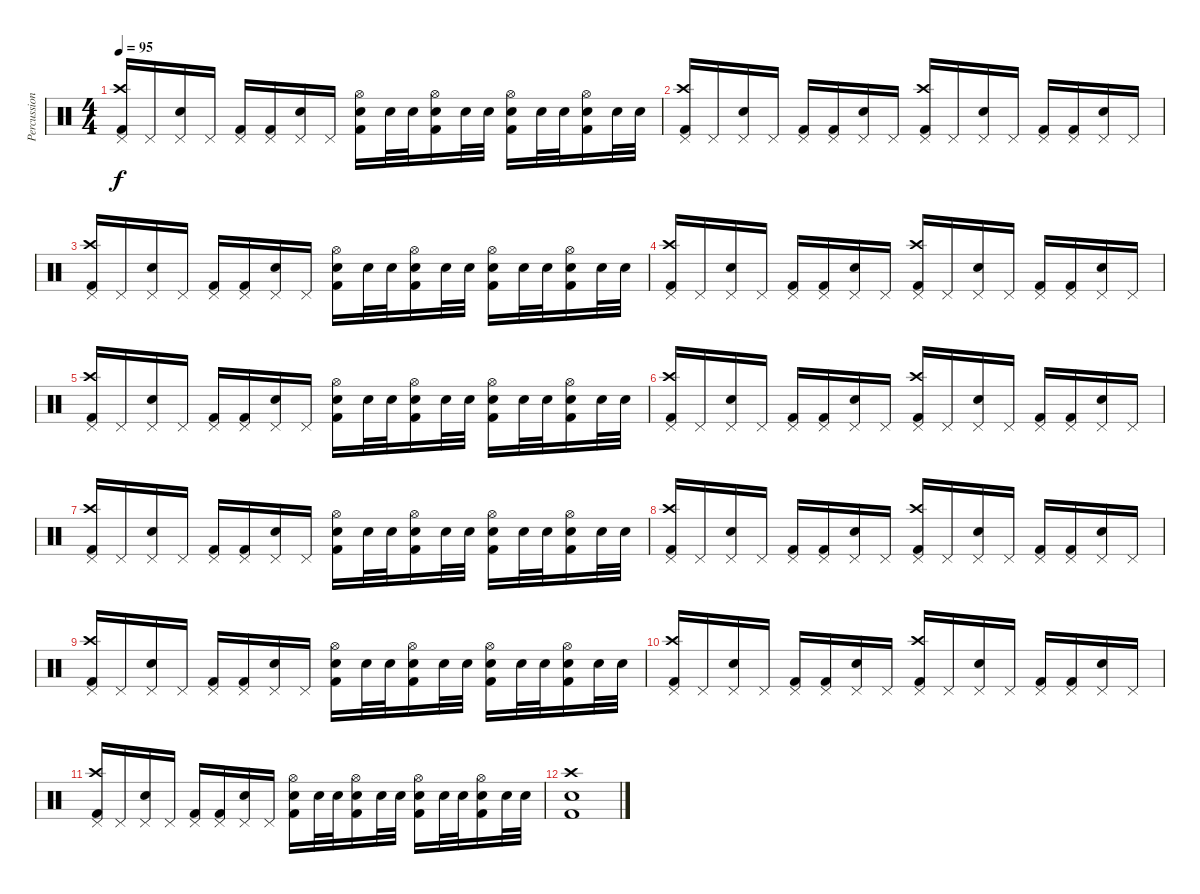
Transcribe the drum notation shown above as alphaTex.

\track ("Percussion" "Percussion") {instrument percussion}
\staff {score}
\articulation defaults
\ts (4 4)
\tempo 95
\clef neutral
\ks c
("Pedal Hi-Hat (hit)" "Crash high (hit)" "Kick (hit) 2").16{dy f} "Pedal Hi-Hat (hit)".16 ("Pedal Hi-Hat (hit)" "Snare (hit) 2").16 "Pedal Hi-Hat (hit)".16 ("Pedal Hi-Hat (hit)" "Kick (hit) 2").16 ("Pedal Hi-Hat (hit)" "Kick (hit) 2").16 ("Pedal Hi-Hat (hit)" "Snare (hit) 2").16 "Pedal Hi-Hat (hit)".16 ("Kick (hit) 2" "Hi-Hat (open)" "Snare (hit) 2").16 "Snare (hit) 2".32 "Snare (hit) 2".32 ("Kick (hit) 2" "Hi-Hat (open)" "Snare (hit) 2").16 "Snare (hit) 2".32 "Snare (hit) 2".32 ("Kick (hit) 2" "Hi-Hat (open)" "Snare (hit) 2").16 "Snare (hit) 2".32 "Snare (hit) 2".32 ("Kick (hit) 2" "Hi-Hat (open)" "Snare (hit) 2").16 "Snare (hit) 2".32 "Snare (hit) 2".32 |
("Pedal Hi-Hat (hit)" "Crash high (hit)" "Kick (hit) 2").16 "Pedal Hi-Hat (hit)".16 ("Pedal Hi-Hat (hit)" "Snare (hit) 2").16 "Pedal Hi-Hat (hit)".16 ("Pedal Hi-Hat (hit)" "Kick (hit) 2").16 ("Pedal Hi-Hat (hit)" "Kick (hit) 2").16 ("Pedal Hi-Hat (hit)" "Snare (hit) 2").16 "Pedal Hi-Hat (hit)".16 ("Pedal Hi-Hat (hit)" "Crash high (hit)" "Kick (hit) 2").16 "Pedal Hi-Hat (hit)".16 ("Pedal Hi-Hat (hit)" "Snare (hit) 2").16 "Pedal Hi-Hat (hit)".16 ("Pedal Hi-Hat (hit)" "Kick (hit) 2").16 ("Pedal Hi-Hat (hit)" "Kick (hit) 2").16 ("Pedal Hi-Hat (hit)" "Snare (hit) 2").16 "Pedal Hi-Hat (hit)".16 |
("Pedal Hi-Hat (hit)" "Crash high (hit)" "Kick (hit) 2").16 "Pedal Hi-Hat (hit)".16 ("Pedal Hi-Hat (hit)" "Snare (hit) 2").16 "Pedal Hi-Hat (hit)".16 ("Pedal Hi-Hat (hit)" "Kick (hit) 2").16 ("Pedal Hi-Hat (hit)" "Kick (hit) 2").16 ("Pedal Hi-Hat (hit)" "Snare (hit) 2").16 "Pedal Hi-Hat (hit)".16 ("Kick (hit) 2" "Hi-Hat (open)" "Snare (hit) 2").16 "Snare (hit) 2".32 "Snare (hit) 2".32 ("Kick (hit) 2" "Hi-Hat (open)" "Snare (hit) 2").16 "Snare (hit) 2".32 "Snare (hit) 2".32 ("Kick (hit) 2" "Hi-Hat (open)" "Snare (hit) 2").16 "Snare (hit) 2".32 "Snare (hit) 2".32 ("Kick (hit) 2" "Hi-Hat (open)" "Snare (hit) 2").16 "Snare (hit) 2".32 "Snare (hit) 2".32 |
("Pedal Hi-Hat (hit)" "Crash high (hit)" "Kick (hit) 2").16 "Pedal Hi-Hat (hit)".16 ("Pedal Hi-Hat (hit)" "Snare (hit) 2").16 "Pedal Hi-Hat (hit)".16 ("Pedal Hi-Hat (hit)" "Kick (hit) 2").16 ("Pedal Hi-Hat (hit)" "Kick (hit) 2").16 ("Pedal Hi-Hat (hit)" "Snare (hit) 2").16 "Pedal Hi-Hat (hit)".16 ("Pedal Hi-Hat (hit)" "Crash high (hit)" "Kick (hit) 2").16 "Pedal Hi-Hat (hit)".16 ("Pedal Hi-Hat (hit)" "Snare (hit) 2").16 "Pedal Hi-Hat (hit)".16 ("Pedal Hi-Hat (hit)" "Kick (hit) 2").16 ("Pedal Hi-Hat (hit)" "Kick (hit) 2").16 ("Pedal Hi-Hat (hit)" "Snare (hit) 2").16 "Pedal Hi-Hat (hit)".16 |
("Pedal Hi-Hat (hit)" "Crash high (hit)" "Kick (hit) 2").16 "Pedal Hi-Hat (hit)".16 ("Pedal Hi-Hat (hit)" "Snare (hit) 2").16 "Pedal Hi-Hat (hit)".16 ("Pedal Hi-Hat (hit)" "Kick (hit) 2").16 ("Pedal Hi-Hat (hit)" "Kick (hit) 2").16 ("Pedal Hi-Hat (hit)" "Snare (hit) 2").16 "Pedal Hi-Hat (hit)".16 ("Kick (hit) 2" "Hi-Hat (open)" "Snare (hit) 2").16 "Snare (hit) 2".32 "Snare (hit) 2".32 ("Kick (hit) 2" "Hi-Hat (open)" "Snare (hit) 2").16 "Snare (hit) 2".32 "Snare (hit) 2".32 ("Kick (hit) 2" "Hi-Hat (open)" "Snare (hit) 2").16 "Snare (hit) 2".32 "Snare (hit) 2".32 ("Kick (hit) 2" "Hi-Hat (open)" "Snare (hit) 2").16 "Snare (hit) 2".32 "Snare (hit) 2".32 |
("Pedal Hi-Hat (hit)" "Crash high (hit)" "Kick (hit) 2").16 "Pedal Hi-Hat (hit)".16 ("Pedal Hi-Hat (hit)" "Snare (hit) 2").16 "Pedal Hi-Hat (hit)".16 ("Pedal Hi-Hat (hit)" "Kick (hit) 2").16 ("Pedal Hi-Hat (hit)" "Kick (hit) 2").16 ("Pedal Hi-Hat (hit)" "Snare (hit) 2").16 "Pedal Hi-Hat (hit)".16 ("Pedal Hi-Hat (hit)" "Crash high (hit)" "Kick (hit) 2").16 "Pedal Hi-Hat (hit)".16 ("Pedal Hi-Hat (hit)" "Snare (hit) 2").16 "Pedal Hi-Hat (hit)".16 ("Pedal Hi-Hat (hit)" "Kick (hit) 2").16 ("Pedal Hi-Hat (hit)" "Kick (hit) 2").16 ("Pedal Hi-Hat (hit)" "Snare (hit) 2").16 "Pedal Hi-Hat (hit)".16 |
("Pedal Hi-Hat (hit)" "Crash high (hit)" "Kick (hit) 2").16 "Pedal Hi-Hat (hit)".16 ("Pedal Hi-Hat (hit)" "Snare (hit) 2").16 "Pedal Hi-Hat (hit)".16 ("Pedal Hi-Hat (hit)" "Kick (hit) 2").16 ("Pedal Hi-Hat (hit)" "Kick (hit) 2").16 ("Pedal Hi-Hat (hit)" "Snare (hit) 2").16 "Pedal Hi-Hat (hit)".16 ("Kick (hit) 2" "Hi-Hat (open)" "Snare (hit) 2").16 "Snare (hit) 2".32 "Snare (hit) 2".32 ("Kick (hit) 2" "Hi-Hat (open)" "Snare (hit) 2").16 "Snare (hit) 2".32 "Snare (hit) 2".32 ("Kick (hit) 2" "Hi-Hat (open)" "Snare (hit) 2").16 "Snare (hit) 2".32 "Snare (hit) 2".32 ("Kick (hit) 2" "Hi-Hat (open)" "Snare (hit) 2").16 "Snare (hit) 2".32 "Snare (hit) 2".32 |
("Pedal Hi-Hat (hit)" "Crash high (hit)" "Kick (hit) 2").16 "Pedal Hi-Hat (hit)".16 ("Pedal Hi-Hat (hit)" "Snare (hit) 2").16 "Pedal Hi-Hat (hit)".16 ("Pedal Hi-Hat (hit)" "Kick (hit) 2").16 ("Pedal Hi-Hat (hit)" "Kick (hit) 2").16 ("Pedal Hi-Hat (hit)" "Snare (hit) 2").16 "Pedal Hi-Hat (hit)".16 ("Pedal Hi-Hat (hit)" "Crash high (hit)" "Kick (hit) 2").16 "Pedal Hi-Hat (hit)".16 ("Pedal Hi-Hat (hit)" "Snare (hit) 2").16 "Pedal Hi-Hat (hit)".16 ("Pedal Hi-Hat (hit)" "Kick (hit) 2").16 ("Pedal Hi-Hat (hit)" "Kick (hit) 2").16 ("Pedal Hi-Hat (hit)" "Snare (hit) 2").16 "Pedal Hi-Hat (hit)".16 |
("Pedal Hi-Hat (hit)" "Crash high (hit)" "Kick (hit) 2").16 "Pedal Hi-Hat (hit)".16 ("Pedal Hi-Hat (hit)" "Snare (hit) 2").16 "Pedal Hi-Hat (hit)".16 ("Pedal Hi-Hat (hit)" "Kick (hit) 2").16 ("Pedal Hi-Hat (hit)" "Kick (hit) 2").16 ("Pedal Hi-Hat (hit)" "Snare (hit) 2").16 "Pedal Hi-Hat (hit)".16 ("Kick (hit) 2" "Hi-Hat (open)" "Snare (hit) 2").16 "Snare (hit) 2".32 "Snare (hit) 2".32 ("Kick (hit) 2" "Hi-Hat (open)" "Snare (hit) 2").16 "Snare (hit) 2".32 "Snare (hit) 2".32 ("Kick (hit) 2" "Hi-Hat (open)" "Snare (hit) 2").16 "Snare (hit) 2".32 "Snare (hit) 2".32 ("Kick (hit) 2" "Hi-Hat (open)" "Snare (hit) 2").16 "Snare (hit) 2".32 "Snare (hit) 2".32 |
("Pedal Hi-Hat (hit)" "Crash high (hit)" "Kick (hit) 2").16 "Pedal Hi-Hat (hit)".16 ("Pedal Hi-Hat (hit)" "Snare (hit) 2").16 "Pedal Hi-Hat (hit)".16 ("Pedal Hi-Hat (hit)" "Kick (hit) 2").16 ("Pedal Hi-Hat (hit)" "Kick (hit) 2").16 ("Pedal Hi-Hat (hit)" "Snare (hit) 2").16 "Pedal Hi-Hat (hit)".16 ("Pedal Hi-Hat (hit)" "Crash high (hit)" "Kick (hit) 2").16 "Pedal Hi-Hat (hit)".16 ("Pedal Hi-Hat (hit)" "Snare (hit) 2").16 "Pedal Hi-Hat (hit)".16 ("Pedal Hi-Hat (hit)" "Kick (hit) 2").16 ("Pedal Hi-Hat (hit)" "Kick (hit) 2").16 ("Pedal Hi-Hat (hit)" "Snare (hit) 2").16 "Pedal Hi-Hat (hit)".16 |
("Pedal Hi-Hat (hit)" "Crash high (hit)" "Kick (hit) 2").16 "Pedal Hi-Hat (hit)".16 ("Pedal Hi-Hat (hit)" "Snare (hit) 2").16 "Pedal Hi-Hat (hit)".16 ("Pedal Hi-Hat (hit)" "Kick (hit) 2").16 ("Pedal Hi-Hat (hit)" "Kick (hit) 2").16 ("Pedal Hi-Hat (hit)" "Snare (hit) 2").16 "Pedal Hi-Hat (hit)".16 ("Kick (hit) 2" "Hi-Hat (open)" "Snare (hit) 2").16 "Snare (hit) 2".32 "Snare (hit) 2".32 ("Kick (hit) 2" "Hi-Hat (open)" "Snare (hit) 2").16 "Snare (hit) 2".32 "Snare (hit) 2".32 ("Kick (hit) 2" "Hi-Hat (open)" "Snare (hit) 2").16 "Snare (hit) 2".32 "Snare (hit) 2".32 ("Kick (hit) 2" "Hi-Hat (open)" "Snare (hit) 2").16 "Snare (hit) 2".32 "Snare (hit) 2".32 |
("Snare (hit) 2" "Kick (hit) 2" "Crash high (hit)").1
